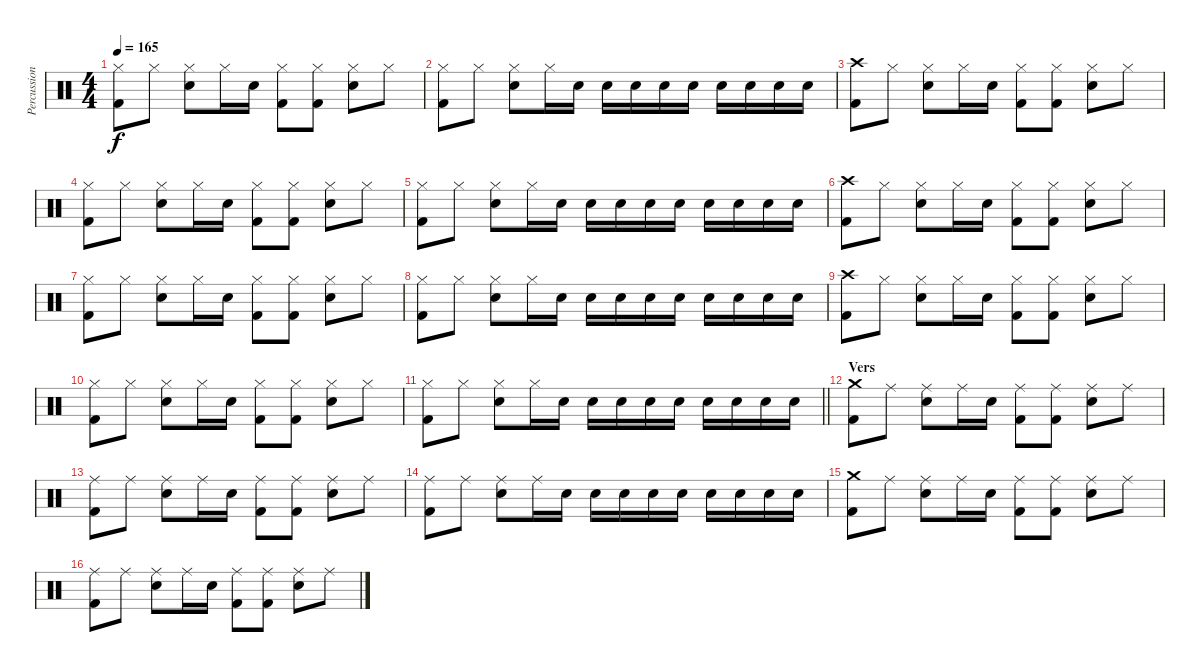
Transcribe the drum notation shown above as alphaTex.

\track ("Percussions" "Percussion") {instrument percussion}
\staff {score}
\articulation defaults
\ts (4 4)
\tempo 165
\clef neutral
\ks c
("Hi-Hat (closed)" "Kick (hit) 2").8{dy f} "Hi-Hat (closed)".8 ("Hi-Hat (closed)" "Snare (hit) 2").8 "Hi-Hat (closed)".16 "Snare (hit) 2".16 ("Hi-Hat (closed)" "Kick (hit) 2").8 ("Hi-Hat (closed)" "Kick (hit) 2").8 ("Hi-Hat (closed)" "Snare (hit) 2").8 "Hi-Hat (closed)".8 |
("Hi-Hat (closed)" "Kick (hit) 2").8 "Hi-Hat (closed)".8 ("Hi-Hat (closed)" "Snare (hit) 2").8 "Hi-Hat (closed)".16 "Snare (hit) 2".16 "Snare (hit) 2".16 "Snare (hit) 2".16 "Snare (hit) 2".16 "Snare (hit) 2".16 "Snare (hit) 2".16 "Snare (hit) 2".16 "Snare (hit) 2".16 "Snare (hit) 2".16 |
("Crash high (hit)" "Kick (hit) 2").8 "Hi-Hat (closed)".8 ("Hi-Hat (closed)" "Snare (hit) 2").8 "Hi-Hat (closed)".16 "Snare (hit) 2".16 ("Hi-Hat (closed)" "Kick (hit) 2").8 ("Hi-Hat (closed)" "Kick (hit) 2").8 ("Hi-Hat (closed)" "Snare (hit) 2").8 "Hi-Hat (closed)".8 |
("Hi-Hat (closed)" "Kick (hit) 2").8 "Hi-Hat (closed)".8 ("Hi-Hat (closed)" "Snare (hit) 2").8 "Hi-Hat (closed)".16 "Snare (hit) 2".16 ("Hi-Hat (closed)" "Kick (hit) 2").8 ("Hi-Hat (closed)" "Kick (hit) 2").8 ("Hi-Hat (closed)" "Snare (hit) 2").8 "Hi-Hat (closed)".8 |
("Hi-Hat (closed)" "Kick (hit) 2").8 "Hi-Hat (closed)".8 ("Hi-Hat (closed)" "Snare (hit) 2").8 "Hi-Hat (closed)".16 "Snare (hit) 2".16 "Snare (hit) 2".16 "Snare (hit) 2".16 "Snare (hit) 2".16 "Snare (hit) 2".16 "Snare (hit) 2".16 "Snare (hit) 2".16 "Snare (hit) 2".16 "Snare (hit) 2".16 |
("Crash high (hit)" "Kick (hit) 2").8 "Hi-Hat (closed)".8 ("Hi-Hat (closed)" "Snare (hit) 2").8 "Hi-Hat (closed)".16 "Snare (hit) 2".16 ("Hi-Hat (closed)" "Kick (hit) 2").8 ("Hi-Hat (closed)" "Kick (hit) 2").8 ("Hi-Hat (closed)" "Snare (hit) 2").8 "Hi-Hat (closed)".8 |
("Hi-Hat (closed)" "Kick (hit) 2").8 "Hi-Hat (closed)".8 ("Hi-Hat (closed)" "Snare (hit) 2").8 "Hi-Hat (closed)".16 "Snare (hit) 2".16 ("Hi-Hat (closed)" "Kick (hit) 2").8 ("Hi-Hat (closed)" "Kick (hit) 2").8 ("Hi-Hat (closed)" "Snare (hit) 2").8 "Hi-Hat (closed)".8 |
("Hi-Hat (closed)" "Kick (hit) 2").8 "Hi-Hat (closed)".8 ("Hi-Hat (closed)" "Snare (hit) 2").8 "Hi-Hat (closed)".16 "Snare (hit) 2".16 "Snare (hit) 2".16 "Snare (hit) 2".16 "Snare (hit) 2".16 "Snare (hit) 2".16 "Snare (hit) 2".16 "Snare (hit) 2".16 "Snare (hit) 2".16 "Snare (hit) 2".16 |
("Crash high (hit)" "Kick (hit) 2").8 "Hi-Hat (closed)".8 ("Hi-Hat (closed)" "Snare (hit) 2").8 "Hi-Hat (closed)".16 "Snare (hit) 2".16 ("Hi-Hat (closed)" "Kick (hit) 2").8 ("Hi-Hat (closed)" "Kick (hit) 2").8 ("Hi-Hat (closed)" "Snare (hit) 2").8 "Hi-Hat (closed)".8 |
("Hi-Hat (closed)" "Kick (hit) 2").8 "Hi-Hat (closed)".8 ("Hi-Hat (closed)" "Snare (hit) 2").8 "Hi-Hat (closed)".16 "Snare (hit) 2".16 ("Hi-Hat (closed)" "Kick (hit) 2").8 ("Hi-Hat (closed)" "Kick (hit) 2").8 ("Hi-Hat (closed)" "Snare (hit) 2").8 "Hi-Hat (closed)".8 |
\barLineRight lightlight
("Hi-Hat (closed)" "Kick (hit) 2").8 "Hi-Hat (closed)".8 ("Hi-Hat (closed)" "Snare (hit) 2").8 "Hi-Hat (closed)".16 "Snare (hit) 2".16 "Snare (hit) 2".16 "Snare (hit) 2".16 "Snare (hit) 2".16 "Snare (hit) 2".16 "Snare (hit) 2".16 "Snare (hit) 2".16 "Snare (hit) 2".16 "Snare (hit) 2".16 |
\section ("" "Vers")
("Crash medium (hit)" "Kick (hit) 2").8 "Ride (middle)".8 ("Ride (middle)" "Snare (hit) 2").8 "Ride (middle)".16 "Snare (hit) 2".16 ("Ride (middle)" "Kick (hit) 2").8 ("Ride (middle)" "Kick (hit) 2").8 ("Ride (middle)" "Snare (hit) 2").8 "Ride (middle)".8 |
("Ride (middle)" "Kick (hit) 2").8 "Ride (middle)".8 ("Ride (middle)" "Snare (hit) 2").8 "Ride (middle)".16 "Snare (hit) 2".16 ("Ride (middle)" "Kick (hit) 2").8 ("Ride (middle)" "Kick (hit) 2").8 ("Ride (middle)" "Snare (hit) 2").8 "Ride (middle)".8 |
("Ride (middle)" "Kick (hit) 2").8 "Ride (middle)".8 ("Ride (middle)" "Snare (hit) 2").8 "Ride (middle)".16 "Snare (hit) 2".16 "Snare (hit) 2".16 "Snare (hit) 2".16 "Snare (hit) 2".16 "Snare (hit) 2".16 "Snare (hit) 2".16 "Snare (hit) 2".16 "Snare (hit) 2".16 "Snare (hit) 2".16 |
("Crash medium (hit)" "Kick (hit) 2").8 "Ride (middle)".8 ("Ride (middle)" "Snare (hit) 2").8 "Ride (middle)".16 "Snare (hit) 2".16 ("Ride (middle)" "Kick (hit) 2").8 ("Ride (middle)" "Kick (hit) 2").8 ("Ride (middle)" "Snare (hit) 2").8 "Ride (middle)".8 |
("Ride (middle)" "Kick (hit) 2").8 "Ride (middle)".8 ("Ride (middle)" "Snare (hit) 2").8 "Ride (middle)".16 "Snare (hit) 2".16 ("Ride (middle)" "Kick (hit) 2").8 ("Ride (middle)" "Kick (hit) 2").8 ("Ride (middle)" "Snare (hit) 2").8 "Ride (middle)".8
